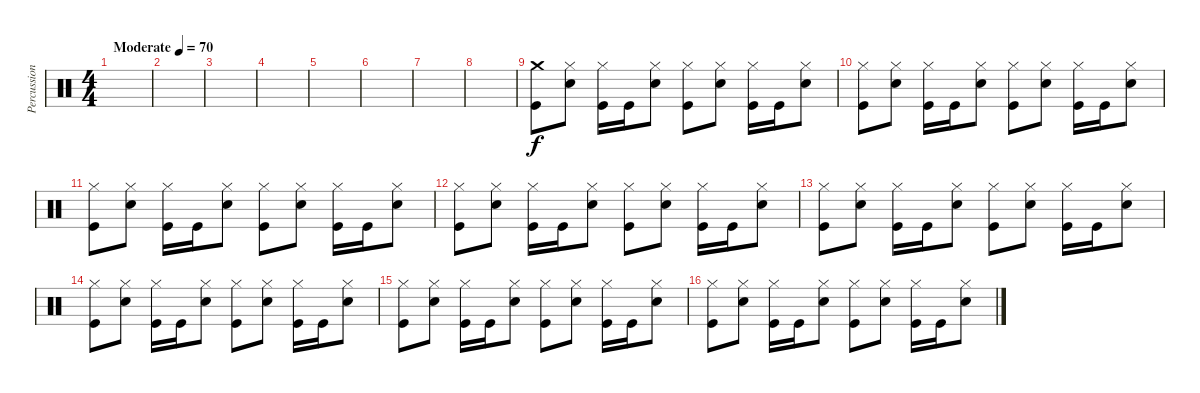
\track ("Percussion" "Percussion") {instrument percussion}
\staff {score}
\articulation defaults
\ts (4 4)
\tempo (70 "Moderate")
\clef neutral
\ks c
|
|
|
|
|
|
|
|
("Crash medium (hit)" "Kick (hit)").8 ("Hi-Hat (closed)" "Snare (hit) 2").8 ("Hi-Hat (closed)" "Kick (hit)").16 "Kick (hit)".16 ("Hi-Hat (closed)" "Snare (hit) 2").8 ("Hi-Hat (closed)" "Kick (hit)").8 ("Hi-Hat (closed)" "Snare (hit) 2").8 ("Hi-Hat (closed)" "Kick (hit)").16 "Kick (hit)".16 ("Hi-Hat (closed)" "Snare (hit) 2").8 |
("Hi-Hat (closed)" "Kick (hit)").8 ("Hi-Hat (closed)" "Snare (hit) 2").8 ("Hi-Hat (closed)" "Kick (hit)").16 "Kick (hit)".16 ("Hi-Hat (closed)" "Snare (hit) 2").8 ("Hi-Hat (closed)" "Kick (hit)").8 ("Hi-Hat (closed)" "Snare (hit) 2").8 ("Hi-Hat (closed)" "Kick (hit)").16 "Kick (hit)".16 ("Hi-Hat (closed)" "Snare (hit) 2").8 |
("Hi-Hat (closed)" "Kick (hit)").8 ("Hi-Hat (closed)" "Snare (hit) 2").8 ("Hi-Hat (closed)" "Kick (hit)").16 "Kick (hit)".16 ("Hi-Hat (closed)" "Snare (hit) 2").8 ("Hi-Hat (closed)" "Kick (hit)").8 ("Hi-Hat (closed)" "Snare (hit) 2").8 ("Hi-Hat (closed)" "Kick (hit)").16 "Kick (hit)".16 ("Hi-Hat (closed)" "Snare (hit) 2").8 |
("Hi-Hat (closed)" "Kick (hit)").8 ("Hi-Hat (closed)" "Snare (hit) 2").8 ("Hi-Hat (closed)" "Kick (hit)").16 "Kick (hit)".16 ("Hi-Hat (closed)" "Snare (hit) 2").8 ("Hi-Hat (closed)" "Kick (hit)").8 ("Hi-Hat (closed)" "Snare (hit) 2").8 ("Hi-Hat (closed)" "Kick (hit)").16 "Kick (hit)".16 ("Hi-Hat (closed)" "Snare (hit) 2").8 |
("Hi-Hat (closed)" "Kick (hit)").8 ("Hi-Hat (closed)" "Snare (hit) 2").8 ("Hi-Hat (closed)" "Kick (hit)").16 "Kick (hit)".16 ("Hi-Hat (closed)" "Snare (hit) 2").8 ("Hi-Hat (closed)" "Kick (hit)").8 ("Hi-Hat (closed)" "Snare (hit) 2").8 ("Hi-Hat (closed)" "Kick (hit)").16 "Kick (hit)".16 ("Hi-Hat (closed)" "Snare (hit) 2").8 |
("Hi-Hat (closed)" "Kick (hit)").8 ("Hi-Hat (closed)" "Snare (hit) 2").8 ("Hi-Hat (closed)" "Kick (hit)").16 "Kick (hit)".16 ("Hi-Hat (closed)" "Snare (hit) 2").8 ("Hi-Hat (closed)" "Kick (hit)").8 ("Hi-Hat (closed)" "Snare (hit) 2").8 ("Hi-Hat (closed)" "Kick (hit)").16 "Kick (hit)".16 ("Hi-Hat (closed)" "Snare (hit) 2").8 |
("Hi-Hat (closed)" "Kick (hit)").8 ("Hi-Hat (closed)" "Snare (hit) 2").8 ("Hi-Hat (closed)" "Kick (hit)").16 "Kick (hit)".16 ("Hi-Hat (closed)" "Snare (hit) 2").8 ("Hi-Hat (closed)" "Kick (hit)").8 ("Hi-Hat (closed)" "Snare (hit) 2").8 ("Hi-Hat (closed)" "Kick (hit)").16 "Kick (hit)".16 ("Hi-Hat (closed)" "Snare (hit) 2").8 |
("Hi-Hat (closed)" "Kick (hit)").8 ("Hi-Hat (closed)" "Snare (hit) 2").8 ("Hi-Hat (closed)" "Kick (hit)").16 "Kick (hit)".16 ("Hi-Hat (closed)" "Snare (hit) 2").8 ("Hi-Hat (closed)" "Kick (hit)").8 ("Hi-Hat (closed)" "Snare (hit) 2").8 ("Hi-Hat (closed)" "Kick (hit)").16 "Kick (hit)".16 ("Hi-Hat (closed)" "Snare (hit) 2").8
